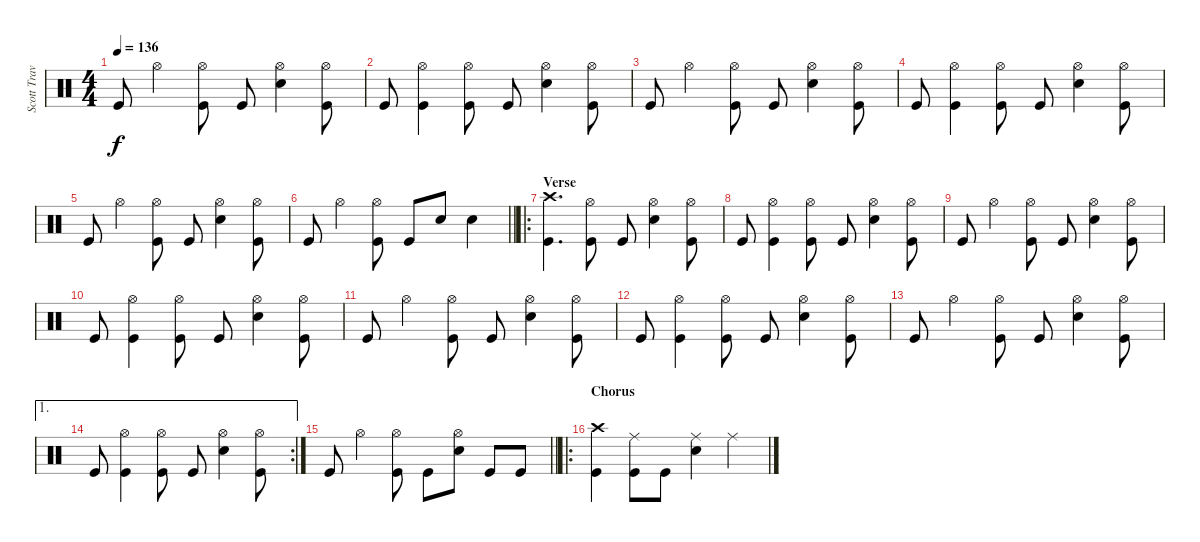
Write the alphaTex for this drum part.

\track ("Scott Travis" "Scott Trav") {instrument percussion}
\staff {score}
\articulation defaults
\ts (4 4)
\tempo 136
\clef neutral
\ks c "Kick (hit)".8{dy f} "Hi-Hat (open)".4
("Hi-Hat (open)" "Kick (hit)").8 "Kick (hit)".8 ("Hi-Hat (open)" "Electric Snare (hit)").4 ("Hi-Hat (open)" "Kick (hit)").8 |
"Kick (hit)".8 ("Hi-Hat (open)" "Kick (hit)").4 ("Hi-Hat (open)" "Kick (hit)").8 "Kick (hit)".8 ("Hi-Hat (open)" "Electric Snare (hit)").4 ("Hi-Hat (open)" "Kick (hit)").8 |
"Kick (hit)".8 "Hi-Hat (open)".4 ("Hi-Hat (open)" "Kick (hit)").8 "Kick (hit)".8 ("Hi-Hat (open)" "Electric Snare (hit)").4 ("Hi-Hat (open)" "Kick (hit)").8 |
"Kick (hit)".8 ("Hi-Hat (open)" "Kick (hit)").4 ("Hi-Hat (open)" "Kick (hit)").8 "Kick (hit)".8 ("Hi-Hat (open)" "Electric Snare (hit)").4 ("Hi-Hat (open)" "Kick (hit)").8 |
"Kick (hit)".8 "Hi-Hat (open)".4 ("Hi-Hat (open)" "Kick (hit)").8 "Kick (hit)".8 ("Hi-Hat (open)" "Electric Snare (hit)").4 ("Hi-Hat (open)" "Kick (hit)").8 |
\barLineRight lightlight "Kick (hit)".8 "Hi-Hat (open)".4
("Hi-Hat (open)" "Kick (hit)").8 "Kick (hit)".8 "Electric Snare (hit)".8 "Electric Snare (hit)".4 |
\ro
\section ("" "Verse")
("Crash high (hit)" "Kick (hit)").4{d} ("Hi-Hat (open)" "Kick (hit)").8 "Kick (hit)".8 ("Hi-Hat (open)" "Electric Snare (hit)").4 ("Hi-Hat (open)" "Kick (hit)").8 |
"Kick (hit)".8 ("Hi-Hat (open)" "Kick (hit)").4 ("Hi-Hat (open)" "Kick (hit)").8 "Kick (hit)".8 ("Hi-Hat (open)" "Electric Snare (hit)").4 ("Hi-Hat (open)" "Kick (hit)").8 |
"Kick (hit)".8 "Hi-Hat (open)".4 ("Hi-Hat (open)" "Kick (hit)").8 "Kick (hit)".8 ("Hi-Hat (open)" "Electric Snare (hit)").4 ("Hi-Hat (open)" "Kick (hit)").8 |
"Kick (hit)".8 ("Hi-Hat (open)" "Kick (hit)").4 ("Hi-Hat (open)" "Kick (hit)").8 "Kick (hit)".8 ("Hi-Hat (open)" "Electric Snare (hit)").4 ("Hi-Hat (open)" "Kick (hit)").8 |
"Kick (hit)".8 "Hi-Hat (open)".4 ("Hi-Hat (open)" "Kick (hit)").8 "Kick (hit)".8 ("Hi-Hat (open)" "Electric Snare (hit)").4 ("Hi-Hat (open)" "Kick (hit)").8 |
"Kick (hit)".8 ("Hi-Hat (open)" "Kick (hit)").4 ("Hi-Hat (open)" "Kick (hit)").8 "Kick (hit)".8 ("Hi-Hat (open)" "Electric Snare (hit)").4 ("Hi-Hat (open)" "Kick (hit)").8 |
"Kick (hit)".8 "Hi-Hat (open)".4 ("Hi-Hat (open)" "Kick (hit)").8 "Kick (hit)".8 ("Hi-Hat (open)" "Electric Snare (hit)").4 ("Hi-Hat (open)" "Kick (hit)").8 |
\ae 1
\rc 2 "Kick (hit)".8
("Hi-Hat (open)" "Kick (hit)").4 ("Hi-Hat (open)" "Kick (hit)").8 "Kick (hit)".8 ("Hi-Hat (open)" "Electric Snare (hit)").4 ("Hi-Hat (open)" "Kick (hit)").8 |
\barLineRight lightlight "Kick (hit)".8 "Hi-Hat (open)".4
("Hi-Hat (open)" "Kick (hit)").8 "Kick (hit)".8 ("Hi-Hat (open)" "Electric Snare (hit)").8 "Kick (hit)".8 "Kick (hit)".8 |
\ro
\section ("" "Chorus")
("Crash high (hit)" "Kick (hit)").4 ("Ride (middle)" "Kick (hit)").8 "Kick (hit)".8 ("Ride (middle)" "Electric Snare (hit)").4 "Ride (middle)".4
